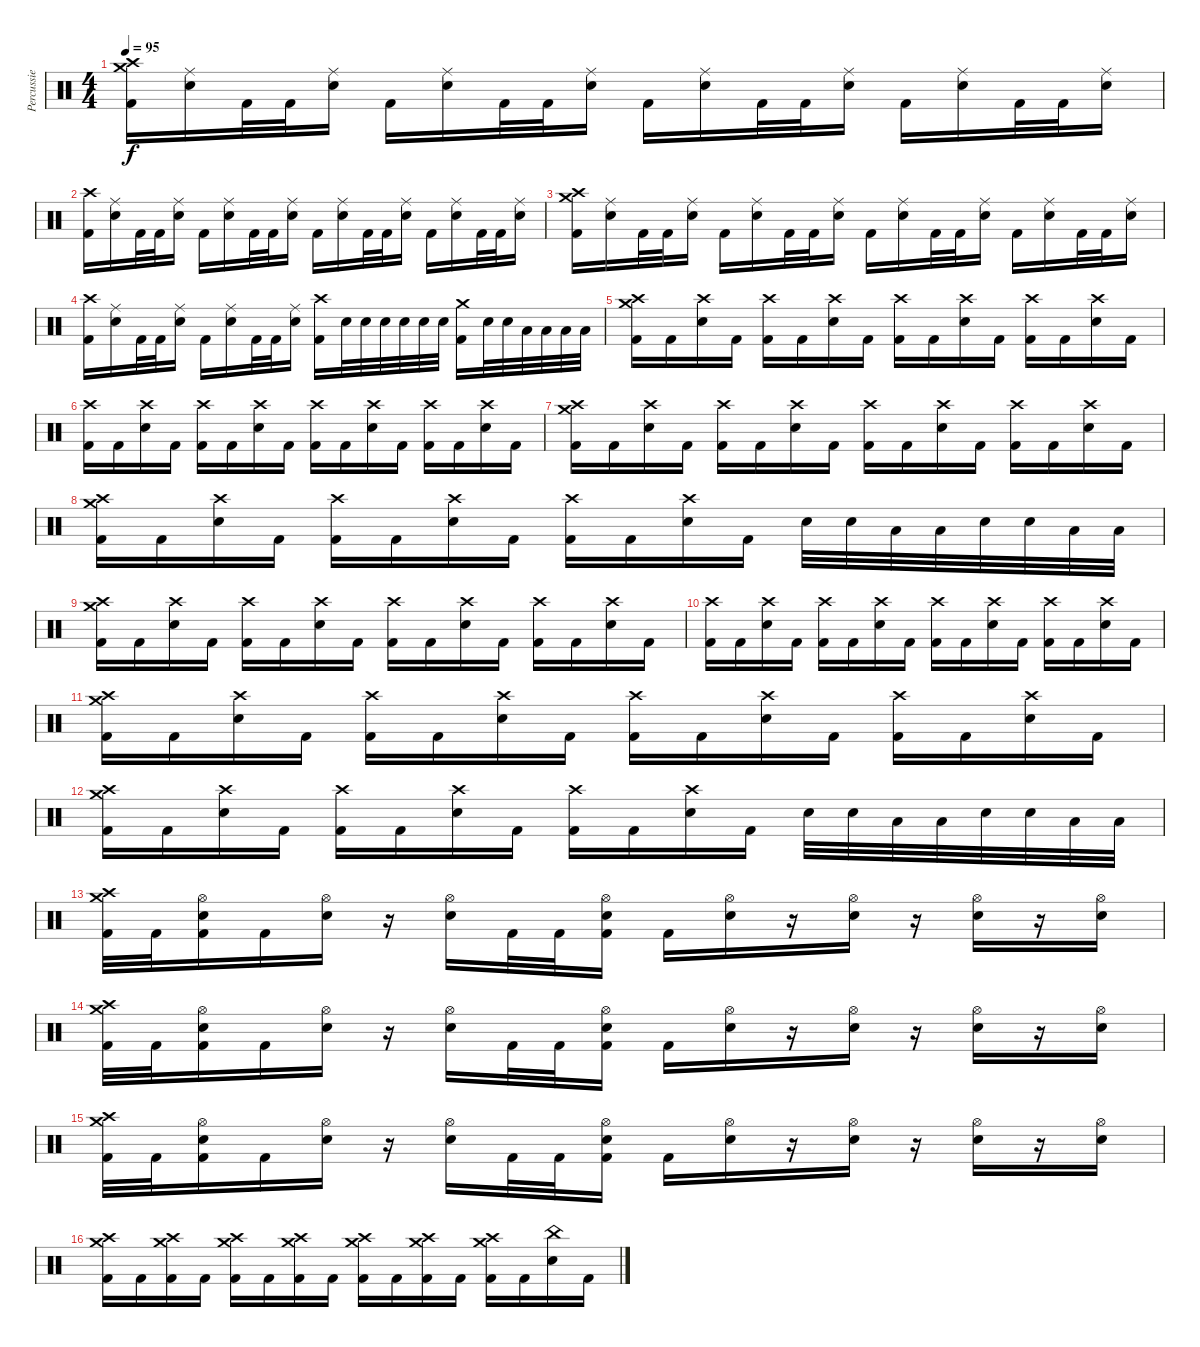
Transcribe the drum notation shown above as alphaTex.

\track ("Percussie" "Percussie") {instrument percussion}
\staff {score}
\articulation defaults
\ts (4 4)
\tempo 95
\clef neutral
\ks c
("Crash medium (hit)" "Crash high (hit)" "Kick (hit) 2").16{dy f} ("Ride (middle)" "Electric Snare (hit)").16 "Kick (hit) 2".32 "Kick (hit) 2".32 ("Ride (middle)" "Electric Snare (hit)").16 "Kick (hit) 2".16 ("Ride (middle)" "Electric Snare (hit)").16 "Kick (hit) 2".32 "Kick (hit) 2".32 ("Ride (middle)" "Electric Snare (hit)").16 "Kick (hit) 2".16 ("Ride (middle)" "Electric Snare (hit)").16 "Kick (hit) 2".32 "Kick (hit) 2".32 ("Ride (middle)" "Electric Snare (hit)").16 "Kick (hit) 2".16 ("Ride (middle)" "Electric Snare (hit)").16 "Kick (hit) 2".32 "Kick (hit) 2".32 ("Ride (middle)" "Electric Snare (hit)").16 |
("Crash high (hit)" "Kick (hit) 2").16 ("Ride (middle)" "Electric Snare (hit)").16 "Kick (hit) 2".32 "Kick (hit) 2".32 ("Ride (middle)" "Electric Snare (hit)").16 "Kick (hit) 2".16 ("Ride (middle)" "Electric Snare (hit)").16 "Kick (hit) 2".32 "Kick (hit) 2".32 ("Ride (middle)" "Electric Snare (hit)").16 "Kick (hit) 2".16 ("Ride (middle)" "Electric Snare (hit)").16 "Kick (hit) 2".32 "Kick (hit) 2".32 ("Ride (middle)" "Electric Snare (hit)").16 "Kick (hit) 2".16 ("Ride (middle)" "Electric Snare (hit)").16 "Kick (hit) 2".32 "Kick (hit) 2".32 ("Ride (middle)" "Electric Snare (hit)").16 |
("Crash medium (hit)" "Crash high (hit)" "Kick (hit) 2").16 ("Ride (middle)" "Electric Snare (hit)").16 "Kick (hit) 2".32 "Kick (hit) 2".32 ("Ride (middle)" "Electric Snare (hit)").16 "Kick (hit) 2".16 ("Ride (middle)" "Electric Snare (hit)").16 "Kick (hit) 2".32 "Kick (hit) 2".32 ("Ride (middle)" "Electric Snare (hit)").16 "Kick (hit) 2".16 ("Ride (middle)" "Electric Snare (hit)").16 "Kick (hit) 2".32 "Kick (hit) 2".32 ("Ride (middle)" "Electric Snare (hit)").16 "Kick (hit) 2".16 ("Ride (middle)" "Electric Snare (hit)").16 "Kick (hit) 2".32 "Kick (hit) 2".32 ("Ride (middle)" "Electric Snare (hit)").16 |
("Crash high (hit)" "Kick (hit) 2").16 ("Ride (middle)" "Electric Snare (hit)").16 "Kick (hit) 2".32 "Kick (hit) 2".32 ("Ride (middle)" "Electric Snare (hit)").16 "Kick (hit) 2".16 ("Ride (middle)" "Electric Snare (hit)").16 "Kick (hit) 2".32 "Kick (hit) 2".32 ("Ride (middle)" "Electric Snare (hit)").16 ("Crash high (hit)" "Kick (hit) 2").16 "Electric Snare (hit)".32 "Electric Snare (hit)".32 "Electric Snare (hit)".32 "Electric Snare (hit)".32 "Electric Snare (hit)".32 "Electric Snare (hit)".32 ("Crash medium (hit)" "Kick (hit) 2").16 "Electric Snare (hit)".32 "Electric Snare (hit)".32 "Low Tom (hit)".32 "Low Tom (hit)".32 "Low Floor Tom (hit)".32 "Low Floor Tom (hit)".32 |
("Crash medium (hit)" "Crash high (hit)" "Kick (hit) 2").16 "Kick (hit) 2".16 ("Crash high (hit)" "Electric Snare (hit)").16 "Kick (hit) 2".16 ("Crash high (hit)" "Kick (hit) 2").16 "Kick (hit) 2".16 ("Crash high (hit)" "Electric Snare (hit)").16 "Kick (hit) 2".16 ("Crash high (hit)" "Kick (hit) 2").16 "Kick (hit) 2".16 ("Crash high (hit)" "Electric Snare (hit)").16 "Kick (hit) 2".16 ("Crash high (hit)" "Kick (hit) 2").16 "Kick (hit) 2".16 ("Crash high (hit)" "Electric Snare (hit)").16 "Kick (hit) 2".16 |
("Crash high (hit)" "Kick (hit) 2").16 "Kick (hit) 2".16 ("Crash high (hit)" "Electric Snare (hit)").16 "Kick (hit) 2".16 ("Crash high (hit)" "Kick (hit) 2").16 "Kick (hit) 2".16 ("Crash high (hit)" "Electric Snare (hit)").16 "Kick (hit) 2".16 ("Crash high (hit)" "Kick (hit) 2").16 "Kick (hit) 2".16 ("Crash high (hit)" "Electric Snare (hit)").16 "Kick (hit) 2".16 ("Crash high (hit)" "Kick (hit) 2").16 "Kick (hit) 2".16 ("Crash high (hit)" "Electric Snare (hit)").16 "Kick (hit) 2".16 |
("Crash medium (hit)" "Crash high (hit)" "Kick (hit) 2").16 "Kick (hit) 2".16 ("Crash high (hit)" "Electric Snare (hit)").16 "Kick (hit) 2".16 ("Crash high (hit)" "Kick (hit) 2").16 "Kick (hit) 2".16 ("Crash high (hit)" "Electric Snare (hit)").16 "Kick (hit) 2".16 ("Crash high (hit)" "Kick (hit) 2").16 "Kick (hit) 2".16 ("Crash high (hit)" "Electric Snare (hit)").16 "Kick (hit) 2".16 ("Crash high (hit)" "Kick (hit) 2").16 "Kick (hit) 2".16 ("Crash high (hit)" "Electric Snare (hit)").16 "Kick (hit) 2".16 |
("Crash medium (hit)" "Crash high (hit)" "Kick (hit) 2").16 "Kick (hit) 2".16 ("Crash high (hit)" "Electric Snare (hit)").16 "Kick (hit) 2".16 ("Crash high (hit)" "Kick (hit) 2").16 "Kick (hit) 2".16 ("Crash high (hit)" "Electric Snare (hit)").16 "Kick (hit) 2".16 ("Crash high (hit)" "Kick (hit) 2").16 "Kick (hit) 2".16 ("Crash high (hit)" "Electric Snare (hit)").16 "Kick (hit) 2".16 "Electric Snare (hit)".32 "Electric Snare (hit)".32 "Low Tom (hit)".32 "Low Tom (hit)".32 "Electric Snare (hit)".32 "Electric Snare (hit)".32 "Low Floor Tom (hit)".32 "Low Floor Tom (hit)".32 |
("Crash medium (hit)" "Crash high (hit)" "Kick (hit) 2").16 "Kick (hit) 2".16 ("Crash high (hit)" "Electric Snare (hit)").16 "Kick (hit) 2".16 ("Crash high (hit)" "Kick (hit) 2").16 "Kick (hit) 2".16 ("Crash high (hit)" "Electric Snare (hit)").16 "Kick (hit) 2".16 ("Crash high (hit)" "Kick (hit) 2").16 "Kick (hit) 2".16 ("Crash high (hit)" "Electric Snare (hit)").16 "Kick (hit) 2".16 ("Crash high (hit)" "Kick (hit) 2").16 "Kick (hit) 2".16 ("Crash high (hit)" "Electric Snare (hit)").16 "Kick (hit) 2".16 |
("Crash high (hit)" "Kick (hit) 2").16 "Kick (hit) 2".16 ("Crash high (hit)" "Electric Snare (hit)").16 "Kick (hit) 2".16 ("Crash high (hit)" "Kick (hit) 2").16 "Kick (hit) 2".16 ("Crash high (hit)" "Electric Snare (hit)").16 "Kick (hit) 2".16 ("Crash high (hit)" "Kick (hit) 2").16 "Kick (hit) 2".16 ("Crash high (hit)" "Electric Snare (hit)").16 "Kick (hit) 2".16 ("Crash high (hit)" "Kick (hit) 2").16 "Kick (hit) 2".16 ("Crash high (hit)" "Electric Snare (hit)").16 "Kick (hit) 2".16 |
("Crash medium (hit)" "Crash high (hit)" "Kick (hit) 2").16 "Kick (hit) 2".16 ("Crash high (hit)" "Electric Snare (hit)").16 "Kick (hit) 2".16 ("Crash high (hit)" "Kick (hit) 2").16 "Kick (hit) 2".16 ("Crash high (hit)" "Electric Snare (hit)").16 "Kick (hit) 2".16 ("Crash high (hit)" "Kick (hit) 2").16 "Kick (hit) 2".16 ("Crash high (hit)" "Electric Snare (hit)").16 "Kick (hit) 2".16 ("Crash high (hit)" "Kick (hit) 2").16 "Kick (hit) 2".16 ("Crash high (hit)" "Electric Snare (hit)").16 "Kick (hit) 2".16 |
("Crash medium (hit)" "Crash high (hit)" "Kick (hit) 2").16 "Kick (hit) 2".16 ("Crash high (hit)" "Electric Snare (hit)").16 "Kick (hit) 2".16 ("Crash high (hit)" "Kick (hit) 2").16 "Kick (hit) 2".16 ("Crash high (hit)" "Electric Snare (hit)").16 "Kick (hit) 2".16 ("Crash high (hit)" "Kick (hit) 2").16 "Kick (hit) 2".16 ("Crash high (hit)" "Electric Snare (hit)").16 "Kick (hit) 2".16 "Electric Snare (hit)".32 "Electric Snare (hit)".32 "Low Tom (hit)".32 "Low Tom (hit)".32 "Electric Snare (hit)".32 "Electric Snare (hit)".32 "Low Floor Tom (hit)".32 "Low Floor Tom (hit)".32 |
("Crash medium (hit)" "Crash high (hit)" "Kick (hit) 2").32 "Kick (hit) 2".32 ("Hi-Hat (open)" "Electric Snare (hit)" "Kick (hit) 2").16 "Kick (hit) 2".16 ("Hi-Hat (open)" "Electric Snare (hit)").16 r.16 ("Hi-Hat (open)" "Electric Snare (hit)").16 "Kick (hit) 2".32 "Kick (hit) 2".32 ("Hi-Hat (open)" "Electric Snare (hit)" "Kick (hit) 2").16 "Kick (hit) 2".16 ("Hi-Hat (open)" "Electric Snare (hit)").16 r.16 ("Hi-Hat (open)" "Electric Snare (hit)").16 r.16 ("Hi-Hat (open)" "Electric Snare (hit)").16 r.16 ("Hi-Hat (open)" "Electric Snare (hit)").16 |
("Crash medium (hit)" "Crash high (hit)" "Kick (hit) 2").32 "Kick (hit) 2".32 ("Hi-Hat (open)" "Electric Snare (hit)" "Kick (hit) 2").16 "Kick (hit) 2".16 ("Hi-Hat (open)" "Electric Snare (hit)").16 r.16 ("Hi-Hat (open)" "Electric Snare (hit)").16 "Kick (hit) 2".32 "Kick (hit) 2".32 ("Hi-Hat (open)" "Electric Snare (hit)" "Kick (hit) 2").16 "Kick (hit) 2".16 ("Hi-Hat (open)" "Electric Snare (hit)").16 r.16 ("Hi-Hat (open)" "Electric Snare (hit)").16 r.16 ("Hi-Hat (open)" "Electric Snare (hit)").16 r.16 ("Hi-Hat (open)" "Electric Snare (hit)").16 |
("Crash medium (hit)" "Crash high (hit)" "Kick (hit) 2").32 "Kick (hit) 2".32 ("Hi-Hat (open)" "Electric Snare (hit)" "Kick (hit) 2").16 "Kick (hit) 2".16 ("Hi-Hat (open)" "Electric Snare (hit)").16 r.16 ("Hi-Hat (open)" "Electric Snare (hit)").16 "Kick (hit) 2".32 "Kick (hit) 2".32 ("Hi-Hat (open)" "Electric Snare (hit)" "Kick (hit) 2").16 "Kick (hit) 2".16 ("Hi-Hat (open)" "Electric Snare (hit)").16 r.16 ("Hi-Hat (open)" "Electric Snare (hit)").16 r.16 ("Hi-Hat (open)" "Electric Snare (hit)").16 r.16 ("Hi-Hat (open)" "Electric Snare (hit)").16 |
("Crash medium (hit)" "Crash high (hit)" "Kick (hit) 2").16 "Kick (hit) 2".16 ("Crash medium (hit)" "Crash high (hit)" "Kick (hit) 2").16 "Kick (hit) 2".16 ("Crash medium (hit)" "Crash high (hit)" "Kick (hit) 2").16 "Kick (hit) 2".16 ("Crash medium (hit)" "Crash high (hit)" "Kick (hit) 2").16 "Kick (hit) 2".16 ("Crash medium (hit)" "Crash high (hit)" "Kick (hit) 2").16 "Kick (hit) 2".16 ("Crash medium (hit)" "Crash high (hit)" "Kick (hit) 2").16 "Kick (hit) 2".16 ("Crash medium (hit)" "Crash high (hit)" "Kick (hit) 2").16 "Kick (hit) 2".16 ("China (hit)" "Electric Snare (hit)").16 "Kick (hit) 2".16
